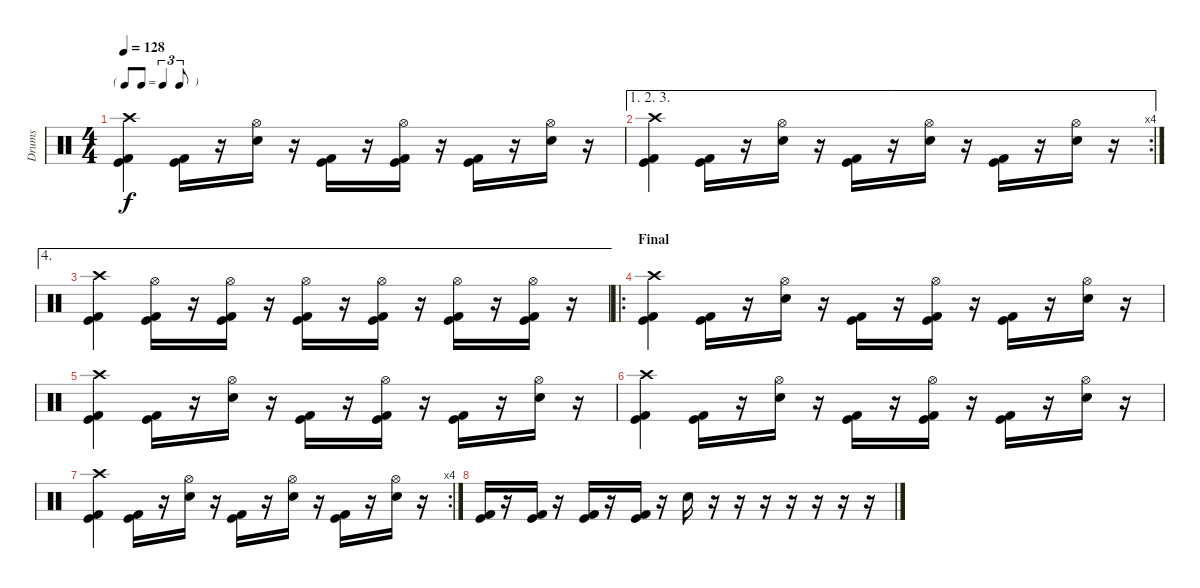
\track ("Drums" "Drums") {instrument percussion}
\staff {score}
\articulation defaults
\ts (4 4)
\tf triplet8th
\tempo 128
\clef neutral
\ks c
("Crash high (hit)" "Kick (hit)" "Kick (hit) 2").4{dy f} ("Kick (hit)" "Kick (hit) 2").16 r.16 ("Hi-Hat (open)" "Electric Snare (hit)").16 r.16 ("Kick (hit) 2" "Kick (hit)").16 r.16 ("Hi-Hat (open)" "Kick (hit)" "Kick (hit) 2").16 r.16 ("Kick (hit)" "Kick (hit) 2").16 r.16 ("Hi-Hat (open)" "Electric Snare (hit)").16 r.16 |
\ae (1 2 3)
\rc 4
("Crash high (hit)" "Kick (hit)" "Kick (hit) 2").4 ("Kick (hit)" "Kick (hit) 2").16 r.16 ("Hi-Hat (open)" "Electric Snare (hit)").16 r.16 ("Kick (hit) 2" "Kick (hit)").16 r.16 ("Hi-Hat (open)" "Electric Snare (hit)").16 r.16 ("Kick (hit)" "Kick (hit) 2").16 r.16 ("Hi-Hat (open)" "Electric Snare (hit)").16 r.16 |
\ae 4
("Crash high (hit)" "Kick (hit)" "Kick (hit) 2").4 ("Hi-Hat (open)" "Kick (hit)" "Kick (hit) 2").16 r.16 ("Hi-Hat (open)" "Kick (hit)" "Kick (hit) 2").16 r.16 ("Hi-Hat (open)" "Kick (hit) 2" "Kick (hit)").16 r.16 ("Hi-Hat (open)" "Kick (hit)" "Kick (hit) 2").16 r.16 ("Hi-Hat (open)" "Kick (hit)" "Kick (hit) 2").16 r.16 ("Hi-Hat (open)" "Kick (hit)" "Kick (hit) 2").16 r.16 |
\ro
\section ("" "Final ")
("Crash high (hit)" "Kick (hit)" "Kick (hit) 2").4 ("Kick (hit)" "Kick (hit) 2").16 r.16 ("Hi-Hat (open)" "Electric Snare (hit)").16 r.16 ("Kick (hit) 2" "Kick (hit)").16 r.16 ("Hi-Hat (open)" "Kick (hit)" "Kick (hit) 2").16 r.16 ("Kick (hit)" "Kick (hit) 2").16 r.16 ("Hi-Hat (open)" "Electric Snare (hit)").16 r.16 |
("Crash high (hit)" "Kick (hit)" "Kick (hit) 2").4 ("Kick (hit)" "Kick (hit) 2").16 r.16 ("Hi-Hat (open)" "Electric Snare (hit)").16 r.16 ("Kick (hit) 2" "Kick (hit)").16 r.16 ("Hi-Hat (open)" "Kick (hit)" "Kick (hit) 2").16 r.16 ("Kick (hit)" "Kick (hit) 2").16 r.16 ("Hi-Hat (open)" "Electric Snare (hit)").16 r.16 |
("Crash high (hit)" "Kick (hit)" "Kick (hit) 2").4 ("Kick (hit)" "Kick (hit) 2").16 r.16 ("Hi-Hat (open)" "Electric Snare (hit)").16 r.16 ("Kick (hit) 2" "Kick (hit)").16 r.16 ("Hi-Hat (open)" "Kick (hit)" "Kick (hit) 2").16 r.16 ("Kick (hit)" "Kick (hit) 2").16 r.16 ("Hi-Hat (open)" "Electric Snare (hit)").16 r.16 |
\rc 4
("Crash high (hit)" "Kick (hit)" "Kick (hit) 2").4 ("Kick (hit)" "Kick (hit) 2").16 r.16 ("Hi-Hat (open)" "Electric Snare (hit)").16 r.16 ("Kick (hit) 2" "Kick (hit)").16 r.16 ("Hi-Hat (open)" "Electric Snare (hit)").16 r.16 ("Kick (hit)" "Kick (hit) 2").16 r.16 ("Hi-Hat (open)" "Electric Snare (hit)").16 r.16 |
("Kick (hit)" "Kick (hit) 2").16 r.16 ("Kick (hit) 2" "Kick (hit)").16 r.16 ("Kick (hit)" "Kick (hit) 2").16 r.16 ("Kick (hit)" "Kick (hit) 2").16 r.16 "Electric Snare (hit)".16 r.16 r.16 r.16 r.16 r.16 r.16 r.16
